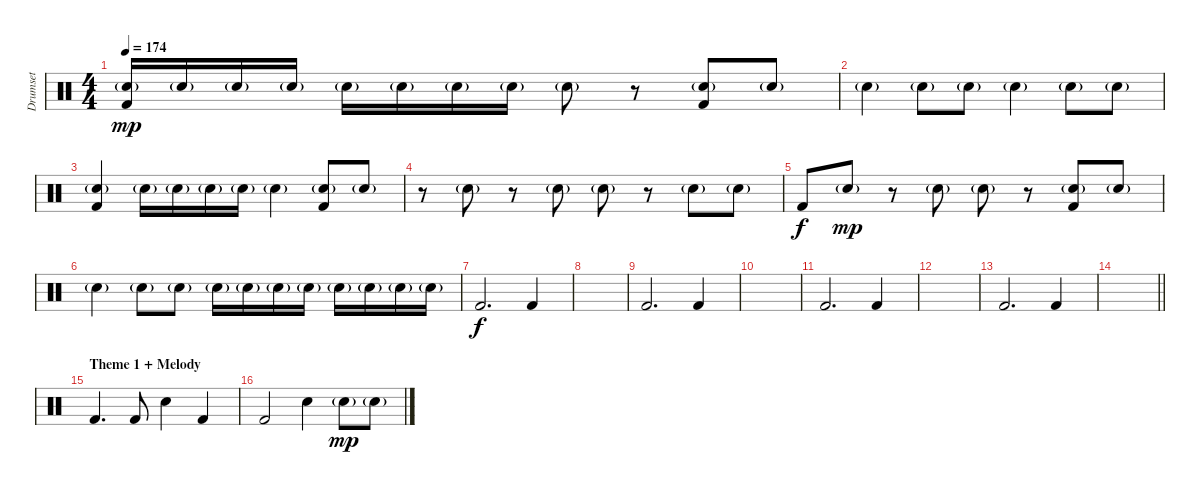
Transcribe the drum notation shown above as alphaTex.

\track ("Drumset" "Drumset") {instrument percussion}
\staff {score}
\articulation defaults
\ts (4 4)
\tempo 174
\clef neutral
\ks c
("Snare (hit) 2"{g} "Kick (hit) 2").16{dy mp} "Snare (hit) 2"{g}.16 "Snare (hit) 2"{g}.16 "Snare (hit) 2"{g}.16 "Snare (hit) 2"{g}.16 "Snare (hit) 2"{g}.16 "Snare (hit) 2"{g}.16 "Snare (hit) 2"{g}.16 "Snare (hit) 2"{g}.8 r.8 ("Snare (hit) 2"{g} "Kick (hit) 2").8 "Snare (hit) 2"{g}.8 |
"Snare (hit) 2"{g}.4 "Snare (hit) 2"{g}.8 "Snare (hit) 2"{g}.8 "Snare (hit) 2"{g}.4 "Snare (hit) 2"{g}.8 "Snare (hit) 2"{g}.8 |
("Snare (hit) 2"{g} "Kick (hit) 2").4 "Snare (hit) 2"{g}.16 "Snare (hit) 2"{g}.16 "Snare (hit) 2"{g}.16 "Snare (hit) 2"{g}.16 "Snare (hit) 2"{g}.4 ("Snare (hit) 2"{g} "Kick (hit) 2").8 "Snare (hit) 2"{g}.8 |
r.8 "Snare (hit) 2"{g}.8 r.8 "Snare (hit) 2"{g}.8 "Snare (hit) 2"{g}.8 r.8 "Snare (hit) 2"{g}.8 "Snare (hit) 2"{g}.8 |
"Kick (hit) 2".8{dy f} "Snare (hit) 2"{g}.8{dy mp} r.8 "Snare (hit) 2"{g}.8 "Snare (hit) 2"{g}.8 r.8 ("Snare (hit) 2"{g} "Kick (hit) 2").8 "Snare (hit) 2"{g}.8 |
"Snare (hit) 2"{g}.4 "Snare (hit) 2"{g}.8 "Snare (hit) 2"{g}.8 "Snare (hit) 2"{g}.16 "Snare (hit) 2"{g}.16 "Snare (hit) 2"{g}.16 "Snare (hit) 2"{g}.16 "Snare (hit) 2"{g}.16 "Snare (hit) 2"{g}.16 "Snare (hit) 2"{g}.16 "Snare (hit) 2"{g}.16 |
"Kick (hit) 2".2{d dy f} "Kick (hit) 2".4 |
|
"Kick (hit) 2".2{d} "Kick (hit) 2".4 |
|
"Kick (hit) 2".2{d} "Kick (hit) 2".4 |
|
"Kick (hit) 2".2{d} "Kick (hit) 2".4 |
\barLineRight lightlight
|
\section ("" "Theme 1 + Melody")
"Kick (hit) 2".4{d} "Kick (hit) 2".8 "Snare (hit) 2".4 "Kick (hit) 2".4 |
"Kick (hit) 2".2 "Snare (hit) 2".4 "Snare (hit) 2"{g}.8{dy mp} "Snare (hit) 2"{g}.8
